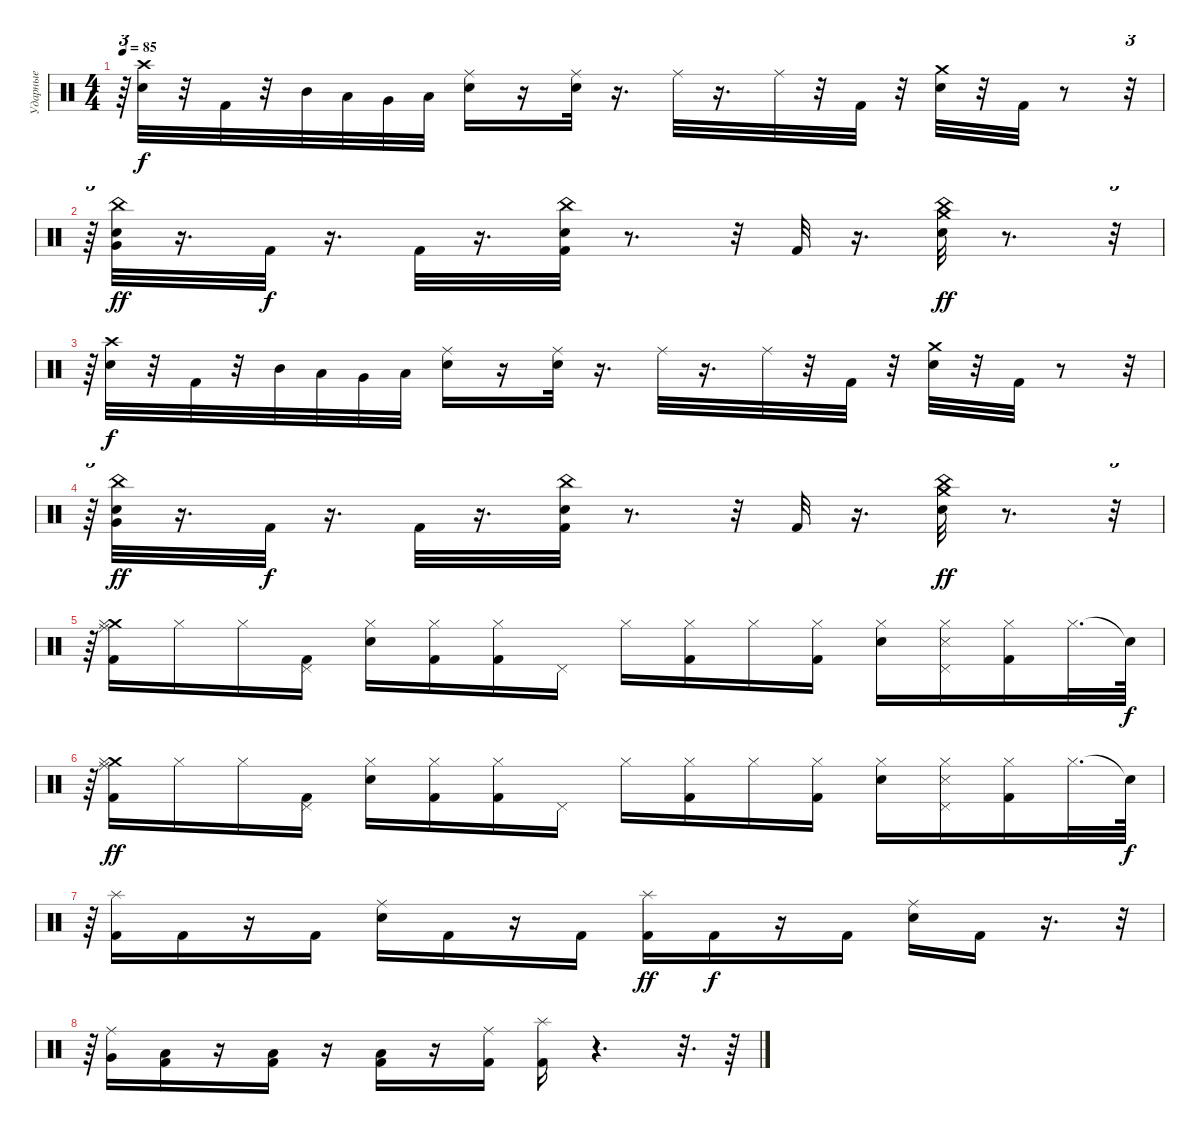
\track ("Ударные" "Ударные") {instrument percussion}
\staff {score}
\articulation defaults
\ts (4 4)
\tempo 85
\clef neutral
\ks c
r.64{tu (3 2) dy ff} ("Crash high (hit)" "Snare (hit) 2").32{dy f} r.32 "Kick (hit) 2".32 r.32 "Mid Tom (hit)".32 "Low Tom (hit)".32 "Very Low Tom (hit)".32 "Low Floor Tom (hit)".32 ("Ride (middle)" "Hand Clap (hit)").16 r.16 ("Ride (middle)" "Snare (hit) 2").32 r.16{d} "Ride (middle)".32 r.16{d} "Ride (middle)".32 r.32 "Kick (hit) 2".32 r.32 ("Crash medium (hit)" "Snare (hit) 2").32 r.32 "Kick (hit) 2".32 r.8 r.32{tu (3 2)} |
r.64{tu (3 2)} ("Very Low Tom (hit)" "China (hit)" "Snare (hit) 2").32{dy ff} r.16{d} "Kick (hit) 2".32{dy f} r.16{d} "Kick (hit) 2".32 r.16{d} ("China (hit)" "Snare (hit) 2" "Kick (hit) 2").32 r.8{d} r.32 "Kick (hit) 2".32 r.16{d} ("Crash medium (hit)" "China (hit)" "Snare (hit) 2").32{dy ff} r.8{d} r.32{tu (3 2)} |
r.64{tu (3 2)} ("Crash high (hit)" "Snare (hit) 2").32{dy f} r.32 "Kick (hit) 2".32 r.32 "Mid Tom (hit)".32 "Low Tom (hit)".32 "Very Low Tom (hit)".32 "Low Floor Tom (hit)".32 ("Ride (middle)" "Hand Clap (hit)").16 r.16 ("Ride (middle)" "Snare (hit) 2").32 r.16{d} "Ride (middle)".32 r.16{d} "Ride (middle)".32 r.32 "Kick (hit) 2".32 r.32 ("Crash medium (hit)" "Snare (hit) 2").32 r.32 "Kick (hit) 2".32 r.8 r.32{tu (3 2)} |
r.64{tu (3 2)} ("Very Low Tom (hit)" "China (hit)" "Snare (hit) 2").32{dy ff} r.16{d} "Kick (hit) 2".32{dy f} r.16{d} "Kick (hit) 2".32 r.16{d} ("China (hit)" "Snare (hit) 2" "Kick (hit) 2").32 r.8{d} r.32 "Kick (hit) 2".32 r.16{d} ("Crash medium (hit)" "China (hit)" "Snare (hit) 2").32{dy ff} r.8{d} r.32{tu (3 2)} |
r.64{tu (3 2)} ("Crash medium (hit)" "Ride (middle)" "Kick (hit) 2" "Hi-Hat (closed)").16 "Hi-Hat (closed)".16 "Hi-Hat (closed)".16 ("Kick (hit) 2" "Pedal Hi-Hat (hit)").16 ("Snare (hit) 2" "Hi-Hat (closed)").16 ("Kick (hit) 2" "Hi-Hat (closed)").16 ("Kick (hit) 2" "Hi-Hat (closed)").16 "Pedal Hi-Hat (hit)".16 "Hi-Hat (closed)".16 ("Kick (hit) 2" "Hi-Hat (closed)").16 "Hi-Hat (closed)".16 ("Kick (hit) 2" "Hi-Hat (closed)").16 ("Snare (hit) 2" "Hi-Hat (closed)").16 ("Snare (side stick) 3" "Pedal Hi-Hat (hit)" "Hi-Hat (closed)").16 ("Kick (hit) 2" "Hi-Hat (closed)").16 "Hi-Hat (closed)".32{d} "Snare (hit)"{t}.64{dy f} |
r.64{tu (3 2)} ("Crash medium (hit)" "Ride (middle)" "Kick (hit) 2" "Hi-Hat (closed)").16{dy ff} "Hi-Hat (closed)".16 "Hi-Hat (closed)".16 ("Kick (hit) 2" "Pedal Hi-Hat (hit)").16 ("Snare (hit) 2" "Hi-Hat (closed)").16 ("Kick (hit) 2" "Hi-Hat (closed)").16 ("Kick (hit) 2" "Hi-Hat (closed)").16 "Pedal Hi-Hat (hit)".16 "Hi-Hat (closed)".16 ("Kick (hit) 2" "Hi-Hat (closed)").16 "Hi-Hat (closed)".16 ("Kick (hit) 2" "Hi-Hat (closed)").16 ("Snare (hit) 2" "Hi-Hat (closed)").16 ("Snare (side stick) 3" "Pedal Hi-Hat (hit)" "Hi-Hat (closed)").16 ("Kick (hit) 2" "Hi-Hat (closed)").16 "Hi-Hat (closed)".32{d} "Snare (hit)"{t}.64{dy f} |
r.64{tu (3 2)} ("Splash (hit)" "Kick (hit) 2").16 "Kick (hit) 2".16 r.16 "Kick (hit) 2".16 ("Snare (hit) 2" "Ride (middle)").16 "Kick (hit) 2".16 r.16 "Kick (hit) 2".16 ("Kick (hit) 2" "Splash (hit)").16{dy ff} "Kick (hit) 2".16{dy f} r.16 "Kick (hit) 2".16 ("Ride (middle)" "Snare (hit) 2").16 "Kick (hit) 2".16 r.16{d} r.32{tu (3 2)} |
r.64{tu (3 2)} ("Very Low Tom (hit)" "Ride (middle)").16 ("Low Floor Tom (hit)" "Kick (hit) 2").16 r.16 ("Low Floor Tom (hit)" "Kick (hit) 2").16 r.16 ("Low Floor Tom (hit)" "Kick (hit) 2").16 r.16 ("Kick (hit) 2" "Ride (middle)").16 ("Kick (hit) 2" "Splash (hit)").16 r.4{d} r.32{d} r.64
